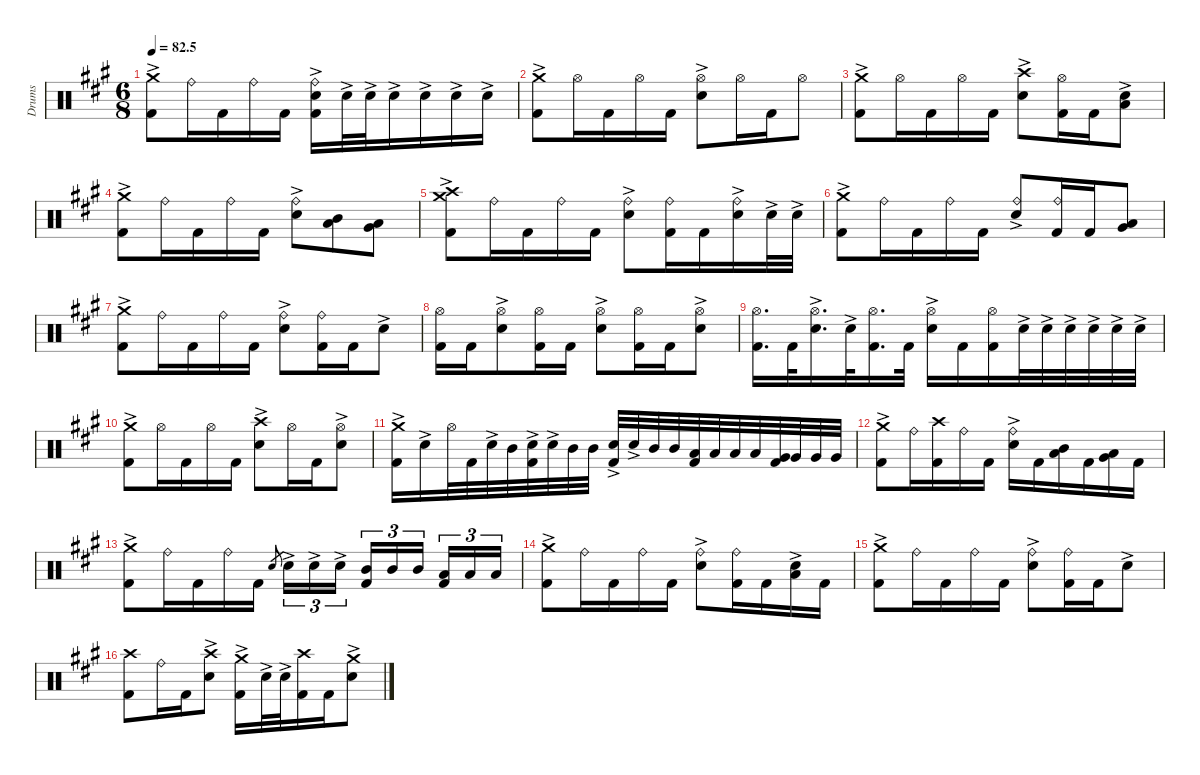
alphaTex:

\defaultSystemsLayout 4
\hideDynamics
\bracketExtendMode nobrackets
\otherSystemsTrackNameOrientation horizontal
\track ("Drumkit-show" "Drums") {defaultSystemsLayout 4 mute instrument percussion}
\staff {score}
\articulation defaults
\ts (6 8)
\tempo
82.5
\accidentals auto
\clef neutral
\ottava regular
\simile none
\ks a
("Crash medium (hit)"{ac acc forcenatural} "Kick (hit) 2"{acc forcenatural}).8{dy f beam Down} "Ride (bell)"{acc forcenatural}.16{beam Down} "Kick (hit) 2"{acc forcenatural}.16{beam Down} "Ride (bell)"{acc forcenatural}.16{beam Down} "Kick (hit) 2"{acc forcenatural}.16{beam Down} ("Ride (bell)"{acc forcenatural} "Snare (hit) 2"{ac acc forcenatural} "Kick (hit) 2"{acc forcenatural}).16{beam Down} "Snare (hit) 2"{ac acc forcenatural}.32{beam Down} "Snare (hit) 2"{ac acc forcenatural}.32{beam Down} "Snare (hit) 2"{ac acc forcenatural}.16{beam Down} "Snare (hit) 2"{ac acc forcenatural}.16{beam Down} "Snare (hit) 2"{ac acc forcenatural}.16{beam Down} "Snare (hit) 2"{ac acc forcenatural}.16{beam Down} |
("Crash medium (hit)"{ac acc forcenatural} "Kick (hit) 2"{acc forcenatural}).8{beam Down} "Hi-Hat (open)"{acc forcenatural}.16{beam Down} "Kick (hit) 2"{acc forcenatural}.16{beam Down} "Hi-Hat (open)"{acc forcenatural}.16{beam Down} "Kick (hit) 2"{acc forcenatural}.16{beam Down} ("Hi-Hat (open)"{acc forcenatural} "Snare (hit) 2"{ac acc forcenatural}).8{beam Down} "Hi-Hat (open)"{acc forcenatural}.16{beam Down} "Kick (hit) 2"{acc forcenatural}.16{beam Down} "Hi-Hat (open)"{acc forcenatural}.8{beam Down} |
("Crash medium (hit)"{ac acc forcenatural} "Kick (hit) 2"{acc forcenatural}).8{beam Down} "Hi-Hat (open)"{acc forcenatural}.16{beam Down} "Kick (hit) 2"{acc forcenatural}.16{beam Down} "Hi-Hat (open)"{acc forcenatural}.16{beam Down} "Kick (hit) 2"{acc forcenatural}.16{beam Down} ("Crash high (hit)"{acc forcenatural} "Snare (hit) 2"{ac acc forcenatural}).8{beam Down} ("Hi-Hat (open)"{acc forcenatural} "Kick (hit) 2"{acc forcenatural}).16{beam Down} "Kick (hit) 2"{acc forcenatural}.16{beam Down} ("Snare (hit) 2"{ac acc forcenatural} "Low Tom (hit)"{acc forcenatural}).8{beam Down} |
("Crash medium (hit)"{ac acc forcenatural} "Kick (hit) 2"{acc forcenatural}).8{beam Down} "Ride (bell)"{acc forcenatural}.16{beam Down} "Kick (hit) 2"{acc forcenatural}.16{beam Down} "Ride (bell)"{acc forcenatural}.16{beam Down} "Kick (hit) 2"{acc forcenatural}.16{beam Down} ("Ride (bell)"{acc forcenatural} "Snare (hit) 2"{ac acc forcenatural}).8{beam Down} ("Mid Tom (hit)"{acc forcenatural} "Low Tom (hit)"{acc forcenatural}).8{beam Down} ("Low Tom (hit)"{acc forcenatural} "Very Low Tom (hit)"{acc forcenatural}).8{beam Down} |
("Crash medium (hit)"{ac acc forcenatural} "Crash high (hit)"{acc forcenatural} "Kick (hit) 2"{acc forcenatural}).8{beam Down} "Ride (bell)"{acc forcenatural}.16{beam Down} "Kick (hit) 2"{acc forcenatural}.16{beam Down} "Ride (bell)"{acc forcenatural}.16{beam Down} "Kick (hit) 2"{acc forcenatural}.16{beam Down} ("Ride (bell)"{acc forcenatural} "Snare (hit) 2"{ac acc forcenatural}).8{beam Down} ("Ride (bell)"{acc forcenatural} "Kick (hit) 2"{acc forcenatural}).16{beam Down} "Kick (hit) 2"{acc forcenatural}.16{beam Down} ("Ride (bell)"{acc forcenatural} "Snare (hit) 2"{ac acc forcenatural}).16{beam Down} "Snare (hit) 2"{ac acc forcenatural}.32{beam Down} "Snare (hit) 2"{ac acc forcenatural}.32{beam Down} |
("Crash medium (hit)"{ac acc forcenatural} "Kick (hit) 2"{acc forcenatural}).8{beam Down} "Ride (bell)"{acc forcenatural}.16{beam Down} "Kick (hit) 2"{acc forcenatural}.16{beam Down} "Ride (bell)"{acc forcenatural}.16{beam Down} "Kick (hit) 2"{acc forcenatural}.16{beam Down} ("Ride (bell)"{acc forcenatural} "Snare (hit) 2"{ac acc forcenatural}).8{beam Up} ("Ride (bell)"{acc forcenatural} "Kick (hit) 2"{acc forcenatural}).16{beam Up} "Kick (hit) 2"{acc forcenatural}.16{beam Up} ("Low Tom (hit)"{acc forcenatural} "Very Low Tom (hit)"{acc forcenatural}).8{beam Up} |
("Crash medium (hit)"{ac acc forcenatural} "Kick (hit) 2"{acc forcenatural}).8{beam Down} "Ride (bell)"{acc forcenatural}.16{beam Down} "Kick (hit) 2"{acc forcenatural}.16{beam Down} "Ride (bell)"{acc forcenatural}.16{beam Down} "Kick (hit) 2"{acc forcenatural}.16{beam Down} ("Ride (bell)"{acc forcenatural} "Snare (hit) 2"{ac acc forcenatural}).8{beam Down} ("Ride (bell)"{acc forcenatural} "Kick (hit) 2"{acc forcenatural}).16{beam Down} "Kick (hit) 2"{acc forcenatural}.16{beam Down} "Snare (hit) 2"{ac acc forcenatural}.8{beam Down} |
("Hi-Hat (open)"{acc forcenatural} "Kick (hit) 2"{acc forcenatural}).16{beam Down} "Kick (hit) 2"{acc forcenatural}.16{beam Down} ("Hi-Hat (open)"{acc forcenatural} "Snare (hit) 2"{ac acc forcenatural}).8{beam Down} ("Hi-Hat (open)"{acc forcenatural} "Kick (hit) 2"{acc forcenatural}).16{beam Down} "Kick (hit) 2"{acc forcenatural}.16{beam Down} ("Hi-Hat (open)"{acc forcenatural} "Snare (hit) 2"{ac acc forcenatural}).8{beam Down} ("Hi-Hat (open)"{acc forcenatural} "Kick (hit) 2"{acc forcenatural}).16{beam Down} "Kick (hit) 2"{acc forcenatural}.16{beam Down} ("Hi-Hat (open)"{acc forcenatural} "Snare (hit) 2"{ac acc forcenatural}).8{beam Down} |
("Hi-Hat (open)"{acc forcenatural} "Kick (hit) 2"{acc forcenatural}).16{d beam Down} "Kick (hit) 2"{acc forcenatural}.32{beam Down} ("Hi-Hat (open)"{acc forcenatural} "Snare (hit) 2"{ac acc forcenatural}).16{d beam Down} "Snare (hit) 2"{ac acc forcenatural}.32{beam Down} ("Hi-Hat (open)"{acc forcenatural} "Kick (hit) 2"{acc forcenatural}).16{d beam Down} "Kick (hit) 2"{acc forcenatural}.32{beam Down} ("Hi-Hat (open)"{acc forcenatural} "Snare (hit) 2"{ac acc forcenatural}).16{beam Down} "Kick (hit) 2"{acc forcenatural}.16{beam Down} ("Hi-Hat (open)"{acc forcenatural} "Kick (hit) 2"{acc forcenatural}).16{beam Down} "Snare (hit) 2"{ac acc forcenatural}.32{beam Down} "Snare (hit) 2"{ac acc forcenatural}.32{beam Down} "Snare (hit) 2"{ac acc forcenatural}.32{beam Down} "Snare (hit) 2"{ac acc forcenatural}.32{beam Down} "Snare (hit) 2"{ac acc forcenatural}.32{beam Down} "Snare (hit) 2"{ac acc forcenatural}.32{beam Down} |
("Crash medium (hit)"{ac acc forcenatural} "Kick (hit) 2"{acc forcenatural}).8{beam Down} "Hi-Hat (open)"{acc forcenatural}.16{beam Down} "Kick (hit) 2"{acc forcenatural}.16{beam Down} "Hi-Hat (open)"{acc forcenatural}.16{beam Down} "Kick (hit) 2"{acc forcenatural}.16{beam Down} ("Crash high (hit)"{acc forcenatural} "Snare (hit) 2"{ac acc forcenatural}).8{beam Down} "Hi-Hat (open)"{acc forcenatural}.16{beam Down} "Kick (hit) 2"{acc forcenatural}.16{beam Down} ("Hi-Hat (open)"{acc forcenatural} "Snare (hit) 2"{ac acc forcenatural}).8{beam Down} |
("Crash medium (hit)"{ac acc forcenatural} "Kick (hit) 2"{acc forcenatural}).16{beam Down} "Snare (hit) 2"{ac acc forcenatural}.16{beam Down} "Hi-Hat (open)"{acc forcenatural}.32{beam Down} "Kick (hit) 2"{acc forcenatural}.32{beam Down} "Snare (hit) 2"{ac acc forcenatural}.32{beam Down} "Mid Tom (hit)"{acc forcenatural}.32{beam Down} ("Snare (hit) 2"{ac acc forcenatural} "Kick (hit) 2"{acc forcenatural}).32{beam Down} "Snare (hit) 2"{ac acc forcenatural}.32{beam Down} "Mid Tom (hit)"{acc forcenatural}.32{beam Down} "Mid Tom (hit)"{acc forcenatural}.32{beam Down} ("Snare (hit) 2"{ac acc forcenatural} "Kick (hit) 2"{acc forcenatural}).32{beam Up} "Snare (hit) 2"{ac acc forcenatural}.32{beam Up} "Mid Tom (hit)"{acc forcenatural}.32{beam Up} "Mid Tom (hit)"{acc forcenatural}.32{beam Up} ("Low Tom (hit)"{acc forcenatural} "Kick (hit) 2"{acc forcenatural}).32{beam Up} "Low Tom (hit)"{acc forcenatural}.32{beam Up} "Low Tom (hit)"{acc forcenatural}.32{beam Up} "Low Tom (hit)"{acc forcenatural}.32{beam Up} ("Very Low Tom (hit)"{acc forcenatural} "Kick (hit) 2"{acc forcenatural}).32{beam Up} "Very Low Tom (hit)"{acc forcenatural}.32{beam Up} "Very Low Tom (hit)"{acc forcenatural}.32{beam Up} "Very Low Tom (hit)"{acc forcenatural}.32{beam Up} |
("Crash medium (hit)"{ac acc forcenatural} "Kick (hit) 2"{acc forcenatural}).8{beam Down} "Ride (bell)"{acc forcenatural}.16{beam Down} ("Crash high (hit)"{acc forcenatural} "Kick (hit) 2"{acc forcenatural}).16{beam Down} "Ride (bell)"{acc forcenatural}.16{beam Down} "Kick (hit) 2"{acc forcenatural}.16{beam Down} ("Ride (bell)"{acc forcenatural} "Snare (hit) 2"{ac acc forcenatural}).16{beam Down} "Kick (hit) 2"{acc forcenatural}.16{beam Down} ("Mid Tom (hit)"{acc forcenatural} "Low Tom (hit)"{acc forcenatural}).16{beam Down} "Kick (hit) 2"{acc forcenatural}.16{beam Down} ("Low Tom (hit)"{acc forcenatural} "Very Low Tom (hit)"{acc forcenatural}).16{beam Down} "Kick (hit) 2"{acc forcenatural}.16{beam Down} |
("Crash medium (hit)"{ac acc forcenatural} "Kick (hit) 2"{acc forcenatural}).8{beam Down} "Ride (bell)"{acc forcenatural}.16{beam Down} "Kick (hit) 2"{acc forcenatural}.16{beam Down} "Ride (bell)"{acc forcenatural}.16{beam Down} "Kick (hit) 2"{acc forcenatural}.16{beam Down} "Snare (hit) 2"{acc forcenatural}.8{gr beam Up} "Snare (hit) 2"{ac acc forcenatural}.16{tu (3 2) beam Down} "Snare (hit) 2"{ac acc forcenatural}.16{tu (3 2) beam Down} "Snare (hit) 2"{ac acc forcenatural}.16{tu (3 2) beam Down} ("Mid Tom (hit)"{acc forcenatural} "Kick (hit) 2"{acc forcenatural}).16{tu (3 2) beam Up} "Mid Tom (hit)"{acc forcenatural}.16{tu (3 2) beam Up} "Mid Tom (hit)"{acc forcenatural}.16{tu (3 2) beam Up} ("Low Tom (hit)"{acc forcenatural} "Kick (hit) 2"{acc forcenatural}).16{tu (3 2) beam Up} "Low Tom (hit)"{acc forcenatural}.16{tu (3 2) beam Up} "Low Tom (hit)"{acc forcenatural}.16{tu (3 2) beam Up} |
("Crash medium (hit)"{ac acc forcenatural} "Kick (hit) 2"{acc forcenatural}).8{beam Down} "Ride (bell)"{acc forcenatural}.16{beam Down} "Kick (hit) 2"{acc forcenatural}.16{beam Down} "Ride (bell)"{acc forcenatural}.16{beam Down} "Kick (hit) 2"{acc forcenatural}.16{beam Down} ("Ride (bell)"{acc forcenatural} "Snare (hit) 2"{ac acc forcenatural}).8{beam Down} ("Ride (bell)"{acc forcenatural} "Kick (hit) 2"{acc forcenatural}).16{beam Down} "Kick (hit) 2"{acc forcenatural}.16{beam Down} ("Snare (hit) 2"{ac acc forcenatural} "Low Tom (hit)"{acc forcenatural}).16{beam Down} "Kick (hit) 2"{acc forcenatural}.16{beam Down} |
("Crash medium (hit)"{ac acc forcenatural} "Kick (hit) 2"{acc forcenatural}).8{beam Down} "Ride (bell)"{acc forcenatural}.16{beam Down} "Kick (hit) 2"{acc forcenatural}.16{beam Down} "Ride (bell)"{acc forcenatural}.16{beam Down} "Kick (hit) 2"{acc forcenatural}.16{beam Down} ("Ride (bell)"{acc forcenatural} "Snare (hit) 2"{ac acc forcenatural}).8{beam Down} ("Ride (bell)"{acc forcenatural} "Kick (hit) 2"{acc forcenatural}).16{beam Down} "Kick (hit) 2"{acc forcenatural}.16{beam Down} "Snare (hit) 2"{ac acc forcenatural}.8{beam Down} |
("Crash high (hit)"{acc forcenatural} "Kick (hit) 2"{acc forcenatural}).8{beam Down} "Ride (bell)"{acc forcenatural}.16{beam Down} "Kick (hit) 2"{acc forcenatural}.16{beam Down} ("Crash high (hit)"{acc forcenatural} "Snare (hit) 2"{ac acc forcenatural}).8{beam Down} ("Crash medium (hit)"{ac acc forcenatural} "Kick (hit) 2"{acc forcenatural}).16{beam Down} "Snare (hit) 2"{ac acc forcenatural}.32{beam Down} "Snare (hit) 2"{ac acc forcenatural}.32{beam Down} ("Crash high (hit)"{acc forcenatural} "Kick (hit) 2"{acc forcenatural}).16{beam Down} "Kick (hit) 2"{acc forcenatural}.16{beam Down} ("Crash medium (hit)"{ac acc forcenatural} "Snare (hit) 2"{ac acc forcenatural}).8{beam Down}
